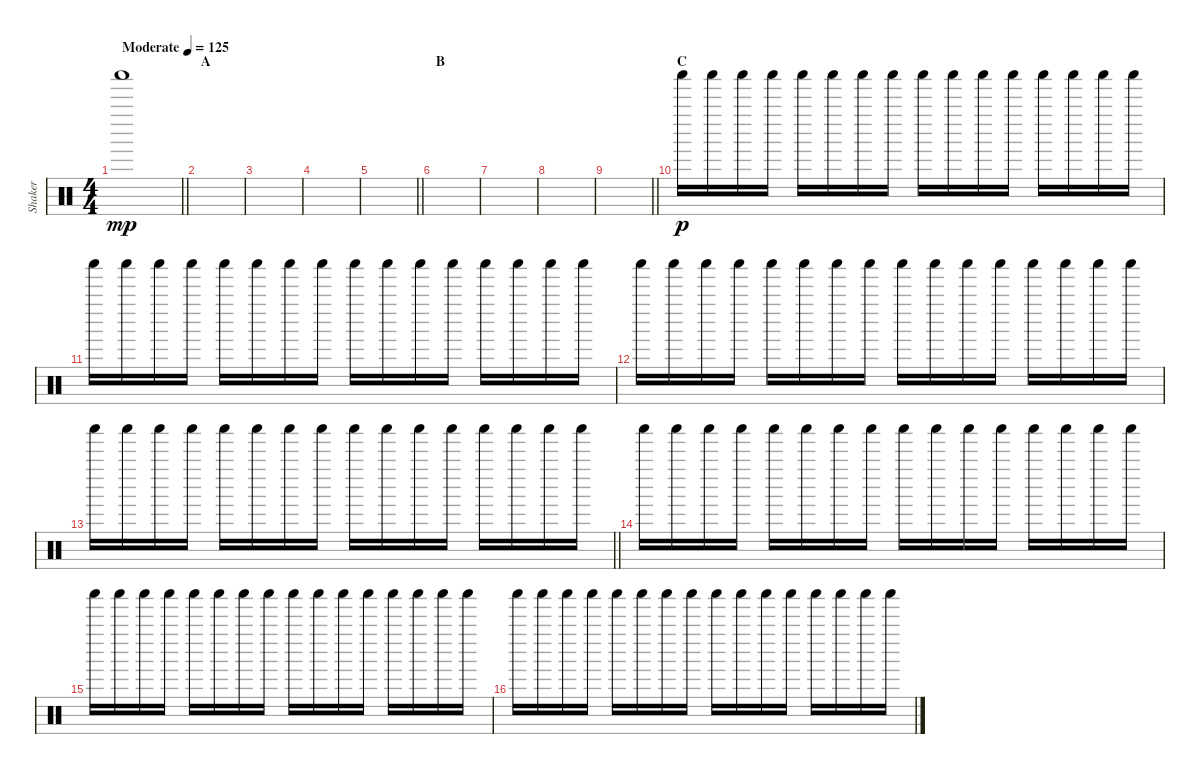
\track ("Shaker" "Shaker") {instrument percussion}
\staff {score}
\articulation defaults
\ts (4 4)
\tempo (125 "Moderate")
\clef neutral
\barLineRight lightlight
\ks c "Shaker (hit)".1{dy mp}
|
\section ("" "A")
|
|
|
\barLineRight lightlight
|
\section ("" "B")
|
|
|
\barLineRight lightlight
|
\section ("" "C")
"Shaker (hit)".16{dy p} "Shaker (hit)".16 "Shaker (hit)".16 "Shaker (hit)".16 "Shaker (hit)".16 "Shaker (hit)".16 "Shaker (hit)".16 "Shaker (hit)".16 "Shaker (hit)".16 "Shaker (hit)".16 "Shaker (hit)".16 "Shaker (hit)".16 "Shaker (hit)".16 "Shaker (hit)".16 "Shaker (hit)".16 "Shaker (hit)".16 |
"Shaker (hit)".16 "Shaker (hit)".16 "Shaker (hit)".16 "Shaker (hit)".16 "Shaker (hit)".16 "Shaker (hit)".16 "Shaker (hit)".16 "Shaker (hit)".16 "Shaker (hit)".16 "Shaker (hit)".16 "Shaker (hit)".16 "Shaker (hit)".16 "Shaker (hit)".16 "Shaker (hit)".16 "Shaker (hit)".16 "Shaker (hit)".16 |
"Shaker (hit)".16 "Shaker (hit)".16 "Shaker (hit)".16 "Shaker (hit)".16 "Shaker (hit)".16 "Shaker (hit)".16 "Shaker (hit)".16 "Shaker (hit)".16 "Shaker (hit)".16 "Shaker (hit)".16 "Shaker (hit)".16 "Shaker (hit)".16 "Shaker (hit)".16 "Shaker (hit)".16 "Shaker (hit)".16 "Shaker (hit)".16 |
\barLineRight lightlight "Shaker (hit)".16 "Shaker (hit)".16 "Shaker (hit)".16 "Shaker (hit)".16 "Shaker (hit)".16 "Shaker (hit)".16 "Shaker (hit)".16 "Shaker (hit)".16 "Shaker (hit)".16 "Shaker (hit)".16 "Shaker (hit)".16 "Shaker (hit)".16 "Shaker (hit)".16 "Shaker (hit)".16 "Shaker (hit)".16 "Shaker (hit)".16
|
"Shaker (hit)".16 "Shaker (hit)".16 "Shaker (hit)".16 "Shaker (hit)".16 "Shaker (hit)".16 "Shaker (hit)".16 "Shaker (hit)".16 "Shaker (hit)".16 "Shaker (hit)".16 "Shaker (hit)".16 "Shaker (hit)".16 "Shaker (hit)".16 "Shaker (hit)".16 "Shaker (hit)".16 "Shaker (hit)".16 "Shaker (hit)".16 |
"Shaker (hit)".16 "Shaker (hit)".16 "Shaker (hit)".16 "Shaker (hit)".16 "Shaker (hit)".16 "Shaker (hit)".16 "Shaker (hit)".16 "Shaker (hit)".16 "Shaker (hit)".16 "Shaker (hit)".16 "Shaker (hit)".16 "Shaker (hit)".16 "Shaker (hit)".16 "Shaker (hit)".16 "Shaker (hit)".16 "Shaker (hit)".16 |
"Shaker (hit)".16 "Shaker (hit)".16 "Shaker (hit)".16 "Shaker (hit)".16 "Shaker (hit)".16 "Shaker (hit)".16 "Shaker (hit)".16 "Shaker (hit)".16 "Shaker (hit)".16 "Shaker (hit)".16 "Shaker (hit)".16 "Shaker (hit)".16 "Shaker (hit)".16 "Shaker (hit)".16 "Shaker (hit)".16 "Shaker (hit)".16
